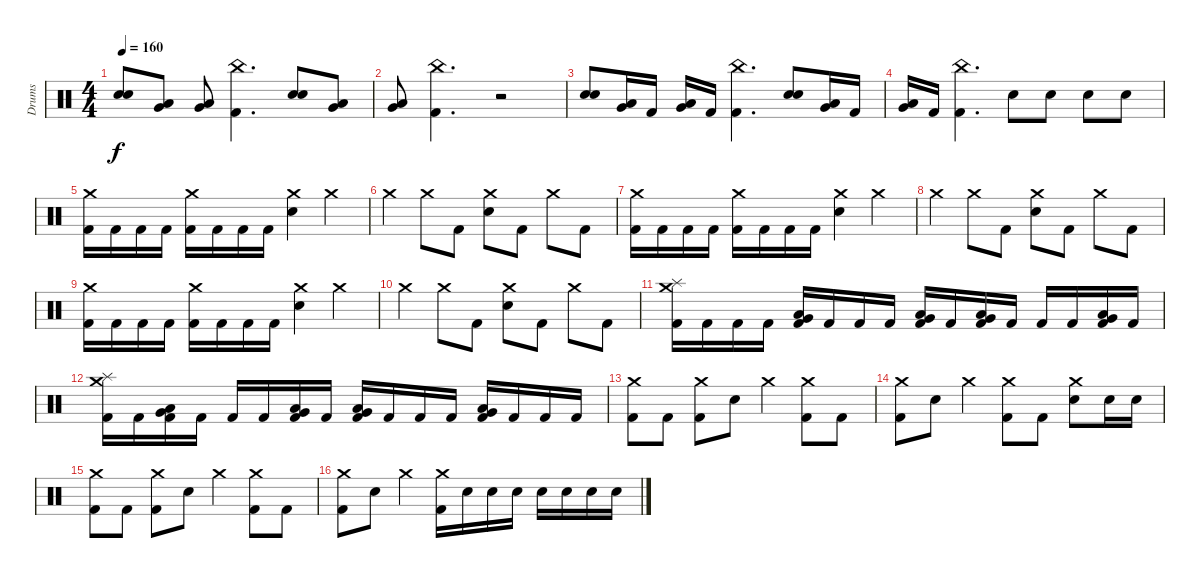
\track ("Drums" "Drums") {instrument percussion}
\staff {score}
\articulation defaults
\ts (4 4)
\tempo 160
\clef neutral
\ks c
("Electric Snare (hit)" "Electric Snare (hit)").8{dy f} ("Low Floor Tom (hit)" "Very Low Tom (hit)").8 ("Low Floor Tom (hit)" "Very Low Tom (hit)").8 ("China (hit)" "Kick (hit) 2").4{d} ("Electric Snare (hit)" "Electric Snare (hit)").8 ("Low Floor Tom (hit)" "Very Low Tom (hit)").8 |
("Low Floor Tom (hit)" "Very Low Tom (hit)").8 ("China (hit)" "Kick (hit) 2").4{d} r.2 |
("Electric Snare (hit)" "Electric Snare (hit)").8 ("Low Floor Tom (hit)" "Very Low Tom (hit)").16 "Kick (hit) 2".16 ("Low Floor Tom (hit)" "Very Low Tom (hit)").16 "Kick (hit) 2".16 ("China (hit)" "Kick (hit) 2").4{d} ("Electric Snare (hit)" "Electric Snare (hit)").8 ("Low Floor Tom (hit)" "Very Low Tom (hit)").16 "Kick (hit) 2".16 |
("Low Floor Tom (hit)" "Very Low Tom (hit)").16 "Kick (hit) 2".16 ("China (hit)" "Kick (hit) 2").4{d} "Electric Snare (hit)".8 "Electric Snare (hit)".8 "Electric Snare (hit)".8 "Electric Snare (hit)".8 |
("Crash medium (hit)" "Kick (hit) 2").16 "Kick (hit) 2".16 "Kick (hit) 2".16 "Kick (hit) 2".16 ("Crash medium (hit)" "Kick (hit) 2").16 "Kick (hit) 2".16 "Kick (hit) 2".16 "Kick (hit) 2".16 ("Crash medium (hit)" "Electric Snare (hit)").4 "Crash medium (hit)".4 |
"Crash medium (hit)".4 "Crash medium (hit)".8 "Kick (hit) 2".8 ("Crash medium (hit)" "Electric Snare (hit)").8 "Kick (hit) 2".8 "Crash medium (hit)".8 "Kick (hit) 2".8 |
("Crash medium (hit)" "Kick (hit) 2").16 "Kick (hit) 2".16 "Kick (hit) 2".16 "Kick (hit) 2".16 ("Crash medium (hit)" "Kick (hit) 2").16 "Kick (hit) 2".16 "Kick (hit) 2".16 "Kick (hit) 2".16 ("Crash medium (hit)" "Electric Snare (hit)").4 "Crash medium (hit)".4 |
"Crash medium (hit)".4 "Crash medium (hit)".8 "Kick (hit) 2".8 ("Crash medium (hit)" "Electric Snare (hit)").8 "Kick (hit) 2".8 "Crash medium (hit)".8 "Kick (hit) 2".8 |
("Crash medium (hit)" "Kick (hit) 2").16 "Kick (hit) 2".16 "Kick (hit) 2".16 "Kick (hit) 2".16 ("Crash medium (hit)" "Kick (hit) 2").16 "Kick (hit) 2".16 "Kick (hit) 2".16 "Kick (hit) 2".16 ("Crash medium (hit)" "Electric Snare (hit)").4 "Crash medium (hit)".4 |
"Crash medium (hit)".4 "Crash medium (hit)".8 "Kick (hit) 2".8 ("Crash medium (hit)" "Electric Snare (hit)").8 "Kick (hit) 2".8 "Crash medium (hit)".8 "Kick (hit) 2".8 |
("Crash medium (hit)" "Splash (hit)" "Kick (hit) 2").16 "Kick (hit) 2".16 "Kick (hit) 2".16 "Kick (hit) 2".16 ("Very Low Tom (hit)" "Low Floor Tom (hit)" "Kick (hit) 2").16 "Kick (hit) 2".16 "Kick (hit) 2".16 "Kick (hit) 2".16 ("Very Low Tom (hit)" "Low Floor Tom (hit)" "Kick (hit) 2").16 "Kick (hit) 2".16 ("Very Low Tom (hit)" "Low Floor Tom (hit)" "Kick (hit) 2").16 "Kick (hit) 2".16 "Kick (hit) 2".16 "Kick (hit) 2".16 ("Very Low Tom (hit)" "Low Floor Tom (hit)" "Kick (hit) 2").16 "Kick (hit) 2".16 |
("Crash medium (hit)" "Splash (hit)" "Kick (hit) 2").16 "Kick (hit) 2".16 ("Very Low Tom (hit)" "Low Floor Tom (hit)" "Kick (hit) 2").16 "Kick (hit) 2".16 "Kick (hit) 2".16 "Kick (hit) 2".16 ("Very Low Tom (hit)" "Low Floor Tom (hit)" "Kick (hit) 2").16 "Kick (hit) 2".16 ("Very Low Tom (hit)" "Low Floor Tom (hit)" "Kick (hit) 2").16 "Kick (hit) 2".16 "Kick (hit) 2".16 "Kick (hit) 2".16 ("Very Low Tom (hit)" "Low Floor Tom (hit)" "Kick (hit) 2").16 "Kick (hit) 2".16 "Kick (hit) 2".16 "Kick (hit) 2".16 |
("Crash medium (hit)" "Kick (hit) 2").8 "Kick (hit) 2".8 ("Crash medium (hit)" "Kick (hit) 2").8 "Electric Snare (hit)".8 "Crash medium (hit)".4 ("Crash medium (hit)" "Kick (hit) 2").8 "Kick (hit) 2".8 |
("Crash medium (hit)" "Kick (hit) 2").8 "Electric Snare (hit)".8 "Crash medium (hit)".4 ("Crash medium (hit)" "Kick (hit) 2").8 "Kick (hit) 2".8 ("Crash medium (hit)" "Electric Snare (hit)").8 "Electric Snare (hit)".16 "Electric Snare (hit)".16 |
("Crash medium (hit)" "Kick (hit) 2").8 "Kick (hit) 2".8 ("Crash medium (hit)" "Kick (hit) 2").8 "Electric Snare (hit)".8 "Crash medium (hit)".4 ("Crash medium (hit)" "Kick (hit) 2").8 "Kick (hit) 2".8 |
("Crash medium (hit)" "Kick (hit) 2").8 "Electric Snare (hit)".8 "Crash medium (hit)".4 ("Crash medium (hit)" "Kick (hit) 2").16 "Electric Snare (hit)".16 "Electric Snare (hit)".16 "Electric Snare (hit)".16 "Electric Snare (hit)".16 "Electric Snare (hit)".16 "Electric Snare (hit)".16 "Electric Snare (hit)".16
